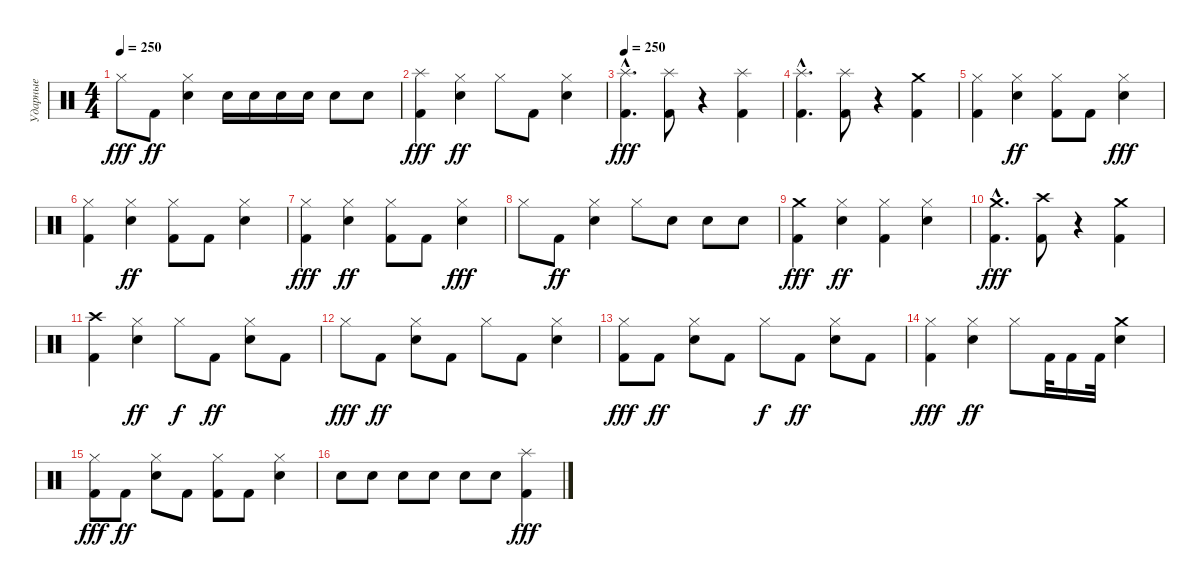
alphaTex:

\track ("Ударные" "Ударные") {instrument percussion}
\staff {score}
\articulation defaults
\ts (4 4)
\tempo 250
\clef neutral
\ks c "Hi-Hat (closed)".8{dy fff} "Kick (hit) 2".8{dy ff}
("Electric Snare (hit)" "Hi-Hat (closed)").4 "Electric Snare (hit)".16 "Electric Snare (hit)".16 "Electric Snare (hit)".16 "Electric Snare (hit)".16 "Electric Snare (hit)".8 "Electric Snare (hit)".8 |
("Kick (hit) 2" "Splash (hit)").4{dy fff} ("Electric Snare (hit)" "Hi-Hat (closed)").4{dy ff} "Hi-Hat (closed)".8 "Kick (hit) 2".8 ("Electric Snare (hit)" "Hi-Hat (closed)").4 |
\tempo 250
("Kick (hit) 2"{hac} "Splash (hit)"{hac}).4{d dy fff} ("Kick (hit) 2" "Splash (hit)").8 r.4 ("Kick (hit) 2" "Splash (hit)").4 |
("Kick (hit) 2"{hac} "Splash (hit)"{hac}).4{d} ("Kick (hit) 2" "Splash (hit)").8 r.4 ("Kick (hit) 2" "Crash medium (hit)").4 |
("Kick (hit) 2" "Hi-Hat (closed)").4 ("Electric Snare (hit)" "Hi-Hat (closed)").4{dy ff} ("Kick (hit) 2" "Hi-Hat (closed)").8 "Kick (hit) 2".8 ("Electric Snare (hit)" "Hi-Hat (closed)").4{dy fff} |
("Kick (hit) 2" "Hi-Hat (closed)").4 ("Electric Snare (hit)" "Hi-Hat (closed)").4{dy ff} ("Kick (hit) 2" "Hi-Hat (closed)").8 "Kick (hit) 2".8 ("Electric Snare (hit)" "Hi-Hat (closed)").4 |
("Kick (hit) 2" "Hi-Hat (closed)").4{dy fff} ("Electric Snare (hit)" "Hi-Hat (closed)").4{dy ff} ("Kick (hit) 2" "Hi-Hat (closed)").8 "Kick (hit) 2".8 ("Electric Snare (hit)" "Hi-Hat (closed)").4{dy fff} |
"Hi-Hat (closed)".8 "Kick (hit) 2".8{dy ff} ("Hi-Hat (closed)" "Electric Snare (hit)").4 "Hi-Hat (closed)".8 "Electric Snare (hit)".8 "Electric Snare (hit)".8 "Electric Snare (hit)".8 |
("Kick (hit) 2" "Crash medium (hit)").4{dy fff} ("Hi-Hat (closed)" "Electric Snare (hit)").4{dy ff} ("Kick (hit) 2" "Hi-Hat (closed)").4 ("Hi-Hat (closed)" "Electric Snare (hit)").4 |
("Kick (hit) 2"{hac} "Crash medium (hit)"{hac}).4{d dy fff} ("Kick (hit) 2" "Crash high (hit)").8 r.4 ("Kick (hit) 2" "Crash medium (hit)").4 |
("Kick (hit) 2" "Crash high (hit)").4 ("Hi-Hat (closed)" "Electric Snare (hit)").4{dy ff} "Hi-Hat (closed)".8{dy f} "Kick (hit) 2".8{dy ff} ("Hi-Hat (closed)" "Electric Snare (hit)").8 "Kick (hit) 2".8 |
"Hi-Hat (closed)".8{dy fff} "Kick (hit) 2".8{dy ff} ("Hi-Hat (closed)" "Electric Snare (hit)").8 "Kick (hit) 2".8 "Hi-Hat (closed)".8 "Kick (hit) 2".8 ("Hi-Hat (closed)" "Electric Snare (hit)").4 |
("Kick (hit) 2" "Hi-Hat (closed)").8{dy fff} "Kick (hit) 2".8{dy ff} ("Hi-Hat (closed)" "Electric Snare (hit)").8 "Kick (hit) 2".8 "Hi-Hat (closed)".8{dy f} "Kick (hit) 2".8{dy ff} ("Hi-Hat (closed)" "Electric Snare (hit)").8 "Kick (hit) 2".8 |
("Kick (hit) 2" "Hi-Hat (closed)").4{dy fff} ("Hi-Hat (closed)" "Electric Snare (hit)").4{dy ff} "Hi-Hat (closed)".8 "Kick (hit) 2".32 "Kick (hit) 2".16 "Kick (hit) 2".32 ("Crash medium (hit)" "Electric Snare (hit)").4 |
("Kick (hit) 2" "Hi-Hat (closed)").8{dy fff} "Kick (hit) 2".8{dy ff} ("Hi-Hat (closed)" "Electric Snare (hit)").8 "Kick (hit) 2".8 ("Kick (hit) 2" "Hi-Hat (closed)").8 "Kick (hit) 2".8 ("Hi-Hat (closed)" "Electric Snare (hit)").4 |
"Electric Snare (hit)".8 "Electric Snare (hit)".8 "Electric Snare (hit)".8 "Electric Snare (hit)".8 "Electric Snare (hit)".8 "Electric Snare (hit)".8 ("Kick (hit) 2" "Splash (hit)").4{dy fff}
